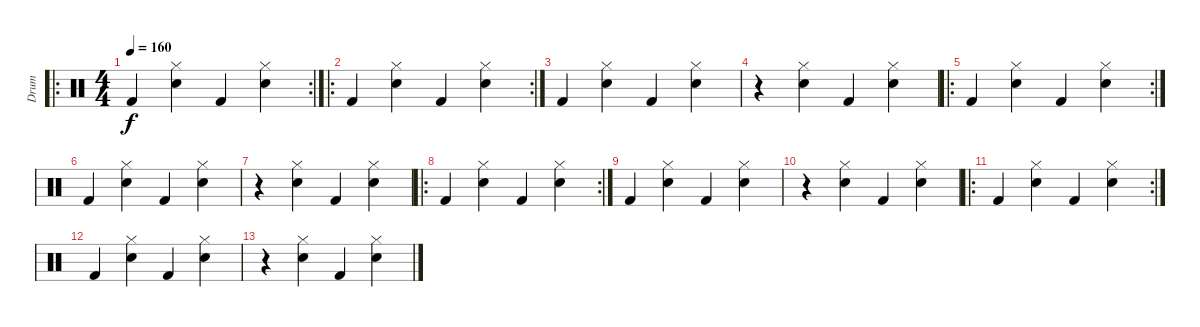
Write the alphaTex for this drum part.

\track ("Drum" "Drum") {instrument percussion}
\staff {score}
\articulation defaults
\ro
\rc 2
\ts (4 4)
\tempo 160
\clef neutral
\ks c "Kick (hit) 2".4{dy f}
("Snare (hit) 2" "Hi-Hat (closed)").4 "Kick (hit) 2".4 ("Snare (hit) 2" "Hi-Hat (closed)").4 |
\ro
\rc 2 "Kick (hit) 2".4
("Snare (hit) 2" "Hi-Hat (closed)").4 "Kick (hit) 2".4 ("Snare (hit) 2" "Hi-Hat (closed)").4 |
"Kick (hit) 2".4 ("Snare (hit) 2" "Hi-Hat (closed)").4 "Kick (hit) 2".4 ("Snare (hit) 2" "Hi-Hat (closed)").4 |
r.4 ("Snare (hit) 2" "Hi-Hat (closed)").4 "Kick (hit) 2".4 ("Snare (hit) 2" "Hi-Hat (closed)").4 |
\ro
\rc 2 "Kick (hit) 2".4
("Snare (hit) 2" "Hi-Hat (closed)").4 "Kick (hit) 2".4 ("Snare (hit) 2" "Hi-Hat (closed)").4 |
"Kick (hit) 2".4 ("Snare (hit) 2" "Hi-Hat (closed)").4 "Kick (hit) 2".4 ("Snare (hit) 2" "Hi-Hat (closed)").4 |
r.4{volume 9} ("Snare (hit) 2" "Hi-Hat (closed)").4 "Kick (hit) 2".4 ("Snare (hit) 2" "Hi-Hat (closed)").4 |
\ro
\rc 2 "Kick (hit) 2".4
("Snare (hit) 2" "Hi-Hat (closed)").4 "Kick (hit) 2".4 ("Snare (hit) 2" "Hi-Hat (closed)").4 |
"Kick (hit) 2".4{volume 7} ("Snare (hit) 2" "Hi-Hat (closed)").4 "Kick (hit) 2".4 ("Snare (hit) 2" "Hi-Hat (closed)").4 |
r.4 ("Snare (hit) 2" "Hi-Hat (closed)").4 "Kick (hit) 2".4 ("Snare (hit) 2" "Hi-Hat (closed)").4 |
\ro
\rc 2 "Kick (hit) 2".4
("Snare (hit) 2" "Hi-Hat (closed)").4 "Kick (hit) 2".4 ("Snare (hit) 2" "Hi-Hat (closed)").4 |
"Kick (hit) 2".4{volume 0} ("Snare (hit) 2" "Hi-Hat (closed)").4 "Kick (hit) 2".4 ("Snare (hit) 2" "Hi-Hat (closed)").4 |
r.4 ("Snare (hit) 2" "Hi-Hat (closed)").4 "Kick (hit) 2".4 ("Snare (hit) 2" "Hi-Hat (closed)").4
